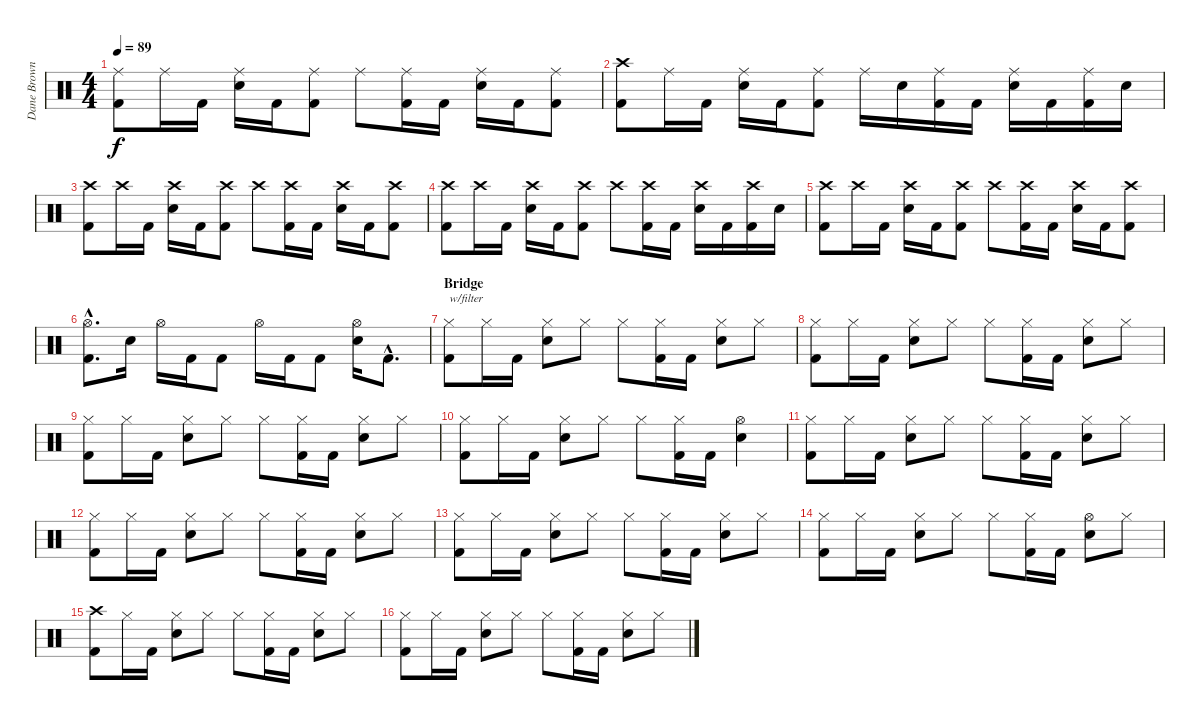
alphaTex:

\track ("Dane Brown (drums)" "Dane Brown") {instrument percussion}
\staff {score}
\articulation defaults
\ts (4 4)
\tempo 89
\clef neutral
\ks c
("Ride (middle)" "Kick (hit) 2").8{dy f} "Ride (middle)".16 "Kick (hit) 2".16 ("Ride (middle)" "Electric Snare (hit)").16 "Kick (hit) 2".16 ("Ride (middle)" "Kick (hit) 2").8 "Ride (middle)".8 ("Ride (middle)" "Kick (hit) 2").16 "Kick (hit) 2".16 ("Ride (middle)" "Electric Snare (hit)").16 "Kick (hit) 2".16 ("Ride (middle)" "Kick (hit) 2").8 |
("Crash high (hit)" "Kick (hit) 2").8 "Ride (middle)".16 "Kick (hit) 2".16 ("Ride (middle)" "Electric Snare (hit)").16 "Kick (hit) 2".16 ("Ride (middle)" "Kick (hit) 2").8 "Ride (middle)".16 "Electric Snare (hit)".16 ("Ride (middle)" "Kick (hit) 2").16 "Kick (hit) 2".16 ("Ride (middle)" "Electric Snare (hit)").16 "Kick (hit) 2".16 ("Ride (middle)" "Kick (hit) 2").16 "Electric Snare (hit)".16 |
("Crash high (hit)" "Kick (hit) 2").8 "Crash high (hit)".16 "Kick (hit) 2".16 ("Crash high (hit)" "Electric Snare (hit)").16 "Kick (hit) 2".16 ("Crash high (hit)" "Kick (hit) 2").8 "Crash high (hit)".8 ("Crash high (hit)" "Kick (hit) 2").16 "Kick (hit) 2".16 ("Crash high (hit)" "Electric Snare (hit)").16 "Kick (hit) 2".16 ("Crash high (hit)" "Kick (hit) 2").8 |
("Crash high (hit)" "Kick (hit) 2").8 "Crash high (hit)".16 "Kick (hit) 2".16 ("Crash high (hit)" "Electric Snare (hit)").16 "Kick (hit) 2".16 ("Crash high (hit)" "Kick (hit) 2").8 "Crash high (hit)".8 ("Crash high (hit)" "Kick (hit) 2").16 "Kick (hit) 2".16 ("Crash high (hit)" "Electric Snare (hit)").16 "Kick (hit) 2".16 ("Crash high (hit)" "Kick (hit) 2").16 "Electric Snare (hit)".16 |
("Crash high (hit)" "Kick (hit) 2").8 "Crash high (hit)".16 "Kick (hit) 2".16 ("Crash high (hit)" "Electric Snare (hit)").16 "Kick (hit) 2".16 ("Crash high (hit)" "Kick (hit) 2").8 "Crash high (hit)".8 ("Crash high (hit)" "Kick (hit) 2").16 "Kick (hit) 2".16 ("Crash high (hit)" "Electric Snare (hit)").16 "Kick (hit) 2".16 ("Crash high (hit)" "Kick (hit) 2").8 |
("Hi-Hat (open)"{hac} "Kick (hit) 2"{hac}).8{d} "Electric Snare (hit)".16 "Hi-Hat (open)".16 "Kick (hit) 2".16 "Kick (hit) 2".8 "Hi-Hat (open)".16 "Kick (hit) 2".16 "Kick (hit) 2".8 ("Hi-Hat (open)" "Electric Snare (hit)").16 "Kick (hit) 2"{hac}.8{d} |
\section ("" "Bridge")
("Hi-Hat (closed)" "Kick (hit) 2").8{txt "w/filter"} "Hi-Hat (closed)".16 "Kick (hit) 2".16 ("Hi-Hat (closed)" "Electric Snare (hit)").8 "Hi-Hat (closed)".8 "Hi-Hat (closed)".8 ("Hi-Hat (closed)" "Kick (hit) 2").16 "Kick (hit) 2".16 ("Hi-Hat (closed)" "Electric Snare (hit)").8 "Hi-Hat (closed)".8 |
("Hi-Hat (closed)" "Kick (hit) 2").8 "Hi-Hat (closed)".16 "Kick (hit) 2".16 ("Hi-Hat (closed)" "Electric Snare (hit)").8 "Hi-Hat (closed)".8 "Hi-Hat (closed)".8 ("Hi-Hat (closed)" "Kick (hit) 2").16 "Kick (hit) 2".16 ("Hi-Hat (closed)" "Electric Snare (hit)").8 "Hi-Hat (closed)".8 |
("Hi-Hat (closed)" "Kick (hit) 2").8 "Hi-Hat (closed)".16 "Kick (hit) 2".16 ("Hi-Hat (closed)" "Electric Snare (hit)").8 "Hi-Hat (closed)".8 "Hi-Hat (closed)".8 ("Hi-Hat (closed)" "Kick (hit) 2").16 "Kick (hit) 2".16 ("Hi-Hat (closed)" "Electric Snare (hit)").8 "Hi-Hat (closed)".8 |
("Hi-Hat (closed)" "Kick (hit) 2").8 "Hi-Hat (closed)".16 "Kick (hit) 2".16 ("Hi-Hat (closed)" "Electric Snare (hit)").8 "Hi-Hat (closed)".8 "Hi-Hat (closed)".8 ("Hi-Hat (closed)" "Kick (hit) 2").16 "Kick (hit) 2".16 ("Hi-Hat (open)" "Electric Snare (hit)").4 |
("Hi-Hat (closed)" "Kick (hit) 2").8 "Hi-Hat (closed)".16 "Kick (hit) 2".16 ("Hi-Hat (closed)" "Electric Snare (hit)").8 "Hi-Hat (closed)".8 "Hi-Hat (closed)".8 ("Hi-Hat (closed)" "Kick (hit) 2").16 "Kick (hit) 2".16 ("Hi-Hat (closed)" "Electric Snare (hit)").8 "Hi-Hat (closed)".8 |
("Hi-Hat (closed)" "Kick (hit) 2").8 "Hi-Hat (closed)".16 "Kick (hit) 2".16 ("Hi-Hat (closed)" "Electric Snare (hit)").8 "Hi-Hat (closed)".8 "Hi-Hat (closed)".8 ("Hi-Hat (closed)" "Kick (hit) 2").16 "Kick (hit) 2".16 ("Hi-Hat (closed)" "Electric Snare (hit)").8 "Hi-Hat (closed)".8 |
("Hi-Hat (closed)" "Kick (hit) 2").8 "Hi-Hat (closed)".16 "Kick (hit) 2".16 ("Hi-Hat (closed)" "Electric Snare (hit)").8 "Hi-Hat (closed)".8 "Hi-Hat (closed)".8 ("Hi-Hat (closed)" "Kick (hit) 2").16 "Kick (hit) 2".16 ("Hi-Hat (closed)" "Electric Snare (hit)").8 "Hi-Hat (closed)".8 |
("Hi-Hat (closed)" "Kick (hit) 2").8 "Hi-Hat (closed)".16 "Kick (hit) 2".16 ("Hi-Hat (closed)" "Electric Snare (hit)").8 "Hi-Hat (closed)".8 "Hi-Hat (closed)".8 ("Hi-Hat (closed)" "Kick (hit) 2").16 "Kick (hit) 2".16 ("Hi-Hat (open)" "Electric Snare (hit)").8 "Hi-Hat (closed)".8 |
("Crash high (hit)" "Kick (hit) 2").8 "Hi-Hat (closed)".16 "Kick (hit) 2".16 ("Hi-Hat (closed)" "Electric Snare (hit)").8 "Hi-Hat (closed)".8 "Hi-Hat (closed)".8 ("Hi-Hat (closed)" "Kick (hit) 2").16 "Kick (hit) 2".16 ("Hi-Hat (closed)" "Electric Snare (hit)").8 "Hi-Hat (closed)".8 |
("Hi-Hat (closed)" "Kick (hit) 2").8 "Hi-Hat (closed)".16 "Kick (hit) 2".16 ("Hi-Hat (closed)" "Electric Snare (hit)").8 "Hi-Hat (closed)".8 "Hi-Hat (closed)".8 ("Hi-Hat (closed)" "Kick (hit) 2").16 "Kick (hit) 2".16 ("Hi-Hat (closed)" "Electric Snare (hit)").8 "Hi-Hat (closed)".8
